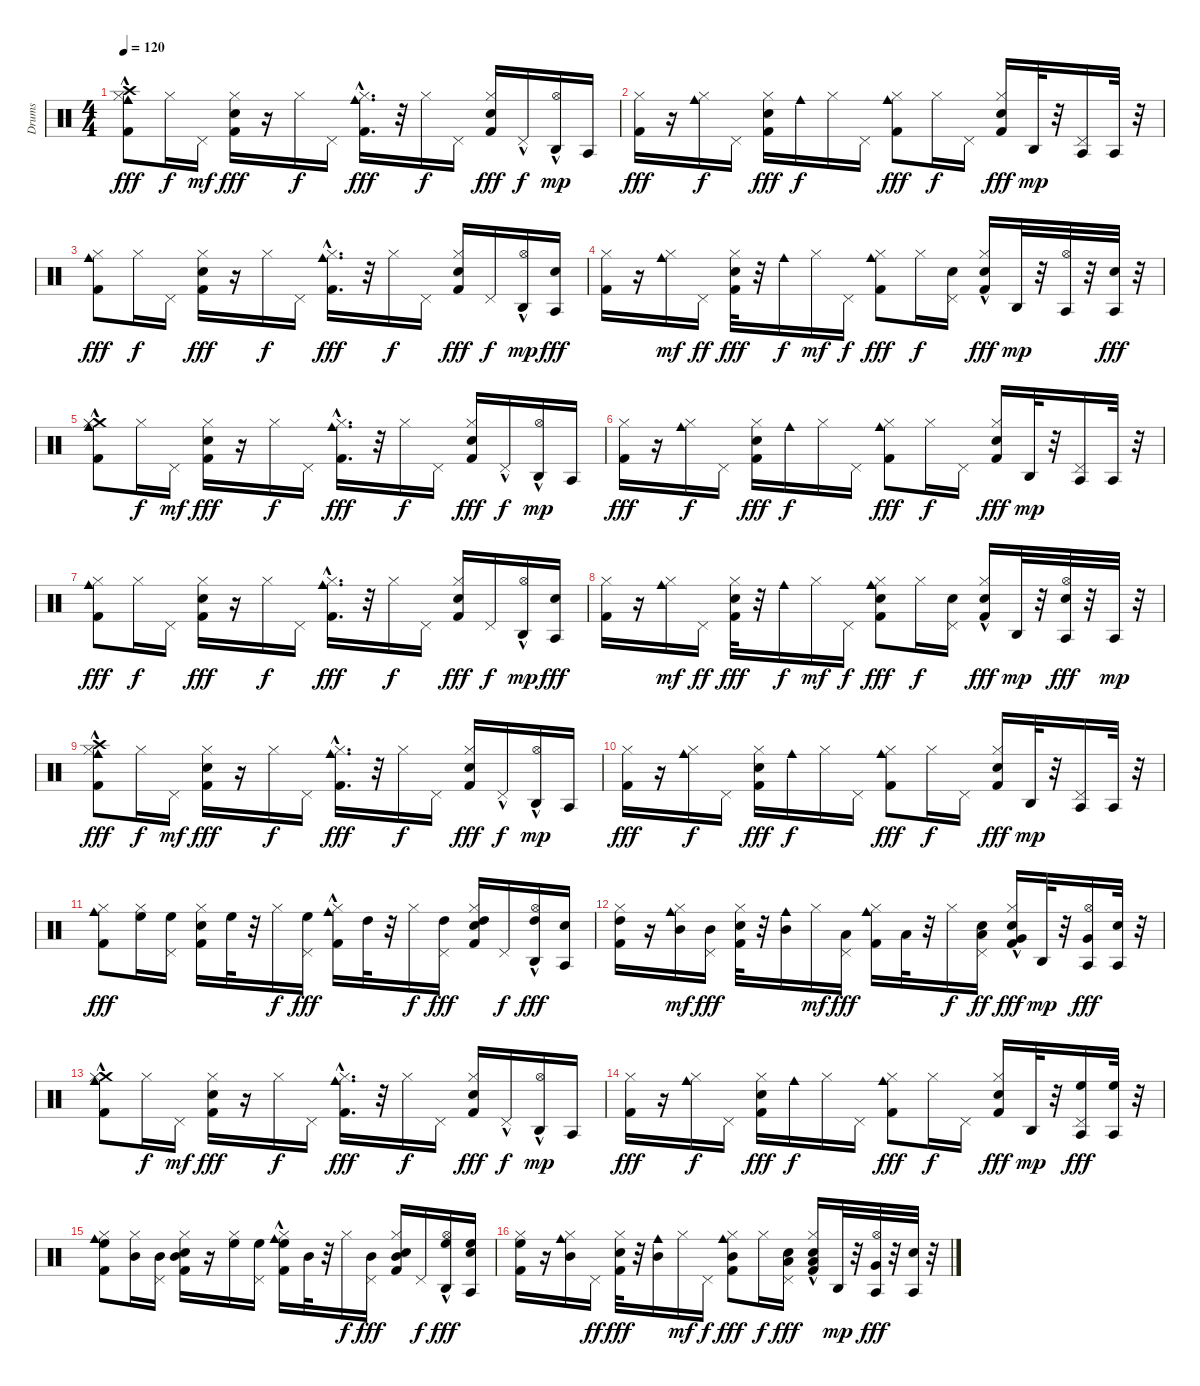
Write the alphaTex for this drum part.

\track ("Drums" "Drums") {instrument percussion}
\staff {score}
\articulation defaults
\ts (4 4)
\tempo 120
\clef neutral
\ks c
("Cowbell medium (hit)" "Crash high (hit)"{hac} "Hi-Hat (closed)" "Kick (hit) 2").8{dy fff} "Hi-Hat (closed)".16{dy f} "Pedal Hi-Hat (hit)".16{dy mf} ("Electric Snare (hit)" "Kick (hit) 2" "Hi-Hat (closed)").16{dy fff} r.16 "Hi-Hat (closed)".16{dy f} "Pedal Hi-Hat (hit)".16 ("Cowbell medium (hit)"{hac} "Kick (hit) 2" "Hi-Hat (closed)").16{d dy fff} r.32 "Hi-Hat (closed)".16{dy f} "Pedal Hi-Hat (hit)".16 ("Kick (hit) 2" "Electric Snare (hit)" "Hi-Hat (closed)").16{dy fff} "Pedal Hi-Hat (hit)"{hac}.16{dy f} ("Agogo high (hit)" "Hi-Hat (open)"{hac}).16{dy mp} "Agogo tow (hit)".16 |
("Kick (hit) 2" "Hi-Hat (closed)").16{dy fff} r.16 ("Cowbell medium (hit)" "Hi-Hat (closed)").16{dy f} "Pedal Hi-Hat (hit)".16 ("Hi-Hat (closed)" "Kick (hit) 2" "Electric Snare (hit)").16{dy fff} "Cowbell medium (hit)".16{dy f} "Hi-Hat (closed)".16 "Pedal Hi-Hat (hit)".16 ("Cowbell medium (hit)" "Kick (hit) 2" "Hi-Hat (closed)").8{dy fff} "Hi-Hat (closed)".16{dy f} "Pedal Hi-Hat (hit)".16 ("Electric Snare (hit)" "Kick (hit) 2" "Hi-Hat (closed)").16{dy fff} "Agogo high (hit)".32{dy mp} r.32 ("Agogo tow (hit)" "Pedal Hi-Hat (hit)").16 "Agogo tow (hit)".32 r.32 |
("Cowbell medium (hit)" "Kick (hit) 2" "Hi-Hat (closed)").8{dy fff} "Hi-Hat (closed)".16{dy f} "Pedal Hi-Hat (hit)".16 ("Electric Snare (hit)" "Kick (hit) 2" "Hi-Hat (closed)").16{dy fff} r.16 "Hi-Hat (closed)".16{dy f} "Pedal Hi-Hat (hit)".16 ("Cowbell medium (hit)"{hac} "Hi-Hat (closed)" "Kick (hit) 2").16{d dy fff} r.32 "Hi-Hat (closed)".16{dy f} "Pedal Hi-Hat (hit)".16 ("Kick (hit) 2" "Electric Snare (hit)" "Hi-Hat (closed)").16{dy fff} "Pedal Hi-Hat (hit)".16{dy f} ("Agogo high (hit)" "Hi-Hat (open)"{hac}).16{dy mp} ("Agogo tow (hit)" "Electric Snare (hit)").16{dy fff} |
("Kick (hit) 2" "Hi-Hat (closed)").16 r.16 ("Cowbell medium (hit)" "Hi-Hat (closed)").16{dy mf} "Pedal Hi-Hat (hit)".16{dy ff} ("Electric Snare (hit)" "Kick (hit) 2" "Hi-Hat (closed)").32{dy fff} r.32 "Cowbell medium (hit)".16{dy f} "Hi-Hat (closed)".16{dy mf} "Pedal Hi-Hat (hit)".16{dy f} ("Cowbell medium (hit)" "Hi-Hat (closed)" "Kick (hit) 2").8{dy fff} "Hi-Hat (closed)".16{dy f} ("Pedal Hi-Hat (hit)" "Electric Snare (hit)").16 ("Hi-Hat (closed)" "Kick (hit) 2"{hac} "Electric Snare (hit)").16{dy fff} "Agogo high (hit)".32{dy mp} r.32 ("Agogo tow (hit)" "Hi-Hat (open)").32 r.32 ("Agogo tow (hit)" "Electric Snare (hit)").32{dy fff} r.32 |
("Cowbell medium (hit)" "Crash medium (hit)"{hac} "Hi-Hat (closed)" "Kick (hit) 2").8 "Hi-Hat (closed)".16{dy f} "Pedal Hi-Hat (hit)".16{dy mf} ("Electric Snare (hit)" "Kick (hit) 2" "Hi-Hat (closed)").16{dy fff} r.16 "Hi-Hat (closed)".16{dy f} "Pedal Hi-Hat (hit)".16 ("Cowbell medium (hit)"{hac} "Kick (hit) 2" "Hi-Hat (closed)").16{d dy fff} r.32 "Hi-Hat (closed)".16{dy f} "Pedal Hi-Hat (hit)".16 ("Kick (hit) 2" "Electric Snare (hit)" "Hi-Hat (closed)").16{dy fff} "Pedal Hi-Hat (hit)"{hac}.16{dy f} ("Agogo high (hit)" "Hi-Hat (open)"{hac}).16{dy mp} "Agogo tow (hit)".16 |
("Kick (hit) 2" "Hi-Hat (closed)").16{dy fff} r.16 ("Cowbell medium (hit)" "Hi-Hat (closed)").16{dy f} "Pedal Hi-Hat (hit)".16 ("Hi-Hat (closed)" "Kick (hit) 2" "Electric Snare (hit)").16{dy fff} "Cowbell medium (hit)".16{dy f} "Hi-Hat (closed)".16 "Pedal Hi-Hat (hit)".16 ("Cowbell medium (hit)" "Kick (hit) 2" "Hi-Hat (closed)").8{dy fff} "Hi-Hat (closed)".16{dy f} "Pedal Hi-Hat (hit)".16 ("Electric Snare (hit)" "Kick (hit) 2" "Hi-Hat (closed)").16{dy fff} "Agogo high (hit)".32{dy mp} r.32 ("Agogo tow (hit)" "Pedal Hi-Hat (hit)").16 "Agogo tow (hit)".32 r.32 |
("Cowbell medium (hit)" "Kick (hit) 2" "Hi-Hat (closed)").8{dy fff} "Hi-Hat (closed)".16{dy f} "Pedal Hi-Hat (hit)".16 ("Electric Snare (hit)" "Kick (hit) 2" "Hi-Hat (closed)").16{dy fff} r.16 "Hi-Hat (closed)".16{dy f} "Pedal Hi-Hat (hit)".16 ("Cowbell medium (hit)"{hac} "Hi-Hat (closed)" "Kick (hit) 2").16{d dy fff} r.32 "Hi-Hat (closed)".16{dy f} "Pedal Hi-Hat (hit)".16 ("Kick (hit) 2" "Electric Snare (hit)" "Hi-Hat (closed)").16{dy fff} "Pedal Hi-Hat (hit)".16{dy f} ("Agogo high (hit)" "Hi-Hat (open)"{hac}).16{dy mp} ("Agogo tow (hit)" "Electric Snare (hit)").16{dy fff} |
("Kick (hit) 2" "Hi-Hat (closed)").16 r.16 ("Cowbell medium (hit)" "Hi-Hat (closed)").16{dy mf} "Pedal Hi-Hat (hit)".16{dy ff} ("Electric Snare (hit)" "Kick (hit) 2" "Hi-Hat (closed)").32{dy fff} r.32 "Cowbell medium (hit)".16{dy f} "Hi-Hat (closed)".16{dy mf} "Pedal Hi-Hat (hit)".16{dy f} ("Cowbell medium (hit)" "Electric Snare (hit)" "Hi-Hat (closed)" "Kick (hit) 2").8{dy fff} "Hi-Hat (closed)".16{dy f} ("Pedal Hi-Hat (hit)" "Electric Snare (hit)").16 ("Hi-Hat (closed)" "Kick (hit) 2"{hac} "Electric Snare (hit)").16{dy fff} "Agogo high (hit)".32{dy mp} r.32 ("Agogo tow (hit)" "Electric Snare (hit)" "Hi-Hat (open)").32{dy fff} r.32 "Agogo tow (hit)".32{dy mp} r.32 |
("Cowbell medium (hit)" "Crash high (hit)"{hac} "Hi-Hat (closed)" "Kick (hit) 2").8{dy fff} "Hi-Hat (closed)".16{dy f} "Pedal Hi-Hat (hit)".16{dy mf} ("Electric Snare (hit)" "Kick (hit) 2" "Hi-Hat (closed)").16{dy fff} r.16 "Hi-Hat (closed)".16{dy f} "Pedal Hi-Hat (hit)".16 ("Cowbell medium (hit)"{hac} "Kick (hit) 2" "Hi-Hat (closed)").16{d dy fff} r.32 "Hi-Hat (closed)".16{dy f} "Pedal Hi-Hat (hit)".16 ("Kick (hit) 2" "Electric Snare (hit)" "Hi-Hat (closed)").16{dy fff} "Pedal Hi-Hat (hit)"{hac}.16{dy f} ("Agogo high (hit)" "Hi-Hat (open)"{hac}).16{dy mp} "Agogo tow (hit)".16 |
("Kick (hit) 2" "Hi-Hat (closed)").16{dy fff} r.16 ("Cowbell medium (hit)" "Hi-Hat (closed)").16{dy f} "Pedal Hi-Hat (hit)".16 ("Hi-Hat (closed)" "Kick (hit) 2" "Electric Snare (hit)").16{dy fff} "Cowbell medium (hit)".16{dy f} "Hi-Hat (closed)".16 "Pedal Hi-Hat (hit)".16 ("Cowbell medium (hit)" "Kick (hit) 2" "Hi-Hat (closed)").8{dy fff} "Hi-Hat (closed)".16{dy f} "Pedal Hi-Hat (hit)".16 ("Electric Snare (hit)" "Kick (hit) 2" "Hi-Hat (closed)").16{dy fff} "Agogo high (hit)".32{dy mp} r.32 ("Agogo tow (hit)" "Pedal Hi-Hat (hit)").16 "Agogo tow (hit)".32 r.32 |
("Cowbell medium (hit)" "Kick (hit) 2" "Hi-Hat (closed)").8{dy fff} ("Hi-Hat (closed)" "High Floor Tom (hit)").16 ("High Floor Tom (hit)" "Pedal Hi-Hat (hit)").16 ("Electric Snare (hit)" "Kick (hit) 2" "Hi-Hat (closed)").16 "High Floor Tom (hit)".32 r.32 "Hi-Hat (closed)".16{dy f} ("High Floor Tom (hit)" "Pedal Hi-Hat (hit)").16{dy fff} ("Cowbell medium (hit)"{hac} "Hi-Hat (closed)" "Kick (hit) 2").16 "High Tom (hit)".32 r.32 "Hi-Hat (closed)".16{dy f} ("High Tom (hit)" "Pedal Hi-Hat (hit)").16{dy fff} ("High Tom (hit)" "Kick (hit) 2" "Electric Snare (hit)" "Hi-Hat (closed)").16 "Pedal Hi-Hat (hit)".16{dy f} ("Agogo high (hit)" "Hi-Hat (open)"{hac} "High Tom (hit)").16{dy fff} ("Agogo tow (hit)" "Electric Snare (hit)").16 |
("High Tom (hit)" "Kick (hit) 2" "Hi-Hat (closed)").16 r.16 ("Cowbell medium (hit)" "Mid Tom (hit)" "Hi-Hat (closed)").16{dy mf} ("Pedal Hi-Hat (hit)" "Mid Tom (hit)").16{dy fff} ("Electric Snare (hit)" "Kick (hit) 2" "Hi-Hat (closed)").32 r.32 ("Cowbell medium (hit)" "Mid Tom (hit)").16 "Hi-Hat (closed)".16{dy mf} ("Pedal Hi-Hat (hit)" "Low Tom (hit)").16{dy fff} ("Cowbell medium (hit)" "Hi-Hat (closed)" "Kick (hit) 2").16 "Low Tom (hit)".32 r.32 "Hi-Hat (closed)".16{dy f} ("Low Tom (hit)" "Pedal Hi-Hat (hit)" "Electric Snare (hit)").16{dy ff} ("Very Low Tom (hit)" "Hi-Hat (closed)" "Kick (hit) 2"{hac} "Electric Snare (hit)").16{dy fff} "Agogo high (hit)".32{dy mp} r.32 ("Agogo tow (hit)" "Very Low Tom (hit)" "Hi-Hat (open)").16{dy fff} ("Agogo tow (hit)" "Electric Snare (hit)").32 r.32 |
("Cowbell medium (hit)" "Crash medium (hit)"{hac} "Hi-Hat (closed)" "Kick (hit) 2").8 "Hi-Hat (closed)".16{dy f} "Pedal Hi-Hat (hit)".16{dy mf} ("Electric Snare (hit)" "Kick (hit) 2" "Hi-Hat (closed)").16{dy fff} r.16 "Hi-Hat (closed)".16{dy f} "Pedal Hi-Hat (hit)".16 ("Cowbell medium (hit)"{hac} "Kick (hit) 2" "Hi-Hat (closed)").16{d dy fff} r.32 "Hi-Hat (closed)".16{dy f} "Pedal Hi-Hat (hit)".16 ("Kick (hit) 2" "Electric Snare (hit)" "Hi-Hat (closed)").16{dy fff} "Pedal Hi-Hat (hit)"{hac}.16{dy f} ("Agogo high (hit)" "Hi-Hat (open)"{hac}).16{dy mp} "Agogo tow (hit)".16 |
("Kick (hit) 2" "Hi-Hat (closed)").16{dy fff} r.16 ("Cowbell medium (hit)" "Hi-Hat (closed)").16{dy f} "Pedal Hi-Hat (hit)".16 ("Hi-Hat (closed)" "Kick (hit) 2" "Electric Snare (hit)").16{dy fff} "Cowbell medium (hit)".16{dy f} "Hi-Hat (closed)".16 "Pedal Hi-Hat (hit)".16 ("Cowbell medium (hit)" "Kick (hit) 2" "Hi-Hat (closed)").8{dy fff} "Hi-Hat (closed)".16{dy f} "Pedal Hi-Hat (hit)".16 ("Electric Snare (hit)" "Kick (hit) 2" "Hi-Hat (closed)").16{dy fff} "Agogo high (hit)".32{dy mp} r.32 ("Agogo tow (hit)" "Pedal Hi-Hat (hit)" "High Floor Tom (hit)").16{dy fff} ("Agogo tow (hit)" "High Floor Tom (hit)").32 r.32 |
("Cowbell medium (hit)" "Kick (hit) 2" "Hi-Hat (closed)" "High Floor Tom (hit)").8 ("Mid Tom (hit)" "Hi-Hat (closed)").16 ("Pedal Hi-Hat (hit)" "Mid Tom (hit)").16 ("Mid Tom (hit)" "Electric Snare (hit)" "Kick (hit) 2" "Hi-Hat (closed)").16 r.16 ("High Floor Tom (hit)" "Hi-Hat (closed)").16 ("High Floor Tom (hit)" "Pedal Hi-Hat (hit)").16 ("Cowbell medium (hit)"{hac} "High Floor Tom (hit)" "Hi-Hat (closed)" "Kick (hit) 2").16 "Mid Tom (hit)".32 r.32 "Hi-Hat (closed)".16{dy f} ("Pedal Hi-Hat (hit)" "Mid Tom (hit)").16{dy fff} ("Kick (hit) 2" "Electric Snare (hit)" "Hi-Hat (closed)" "Mid Tom (hit)").16 "Pedal Hi-Hat (hit)".16{dy f} ("Agogo high (hit)" "High Floor Tom (hit)" "Hi-Hat (open)"{hac}).16{dy fff} ("Agogo tow (hit)" "High Floor Tom (hit)" "Electric Snare (hit)").16 |
("High Floor Tom (hit)" "Kick (hit) 2" "Hi-Hat (closed)").16 r.16 ("Cowbell medium (hit)" "Hi-Hat (closed)" "Mid Tom (hit)").16 "Pedal Hi-Hat (hit)".16{dy ff} ("Electric Snare (hit)" "Kick (hit) 2" "Hi-Hat (closed)").32{dy fff} r.32 ("Cowbell medium (hit)" "Mid Tom (hit)").16 "Hi-Hat (closed)".16{dy mf} "Pedal Hi-Hat (hit)".16{dy f} ("Cowbell medium (hit)" "Mid Tom (hit)" "Hi-Hat (closed)" "Kick (hit) 2").8{dy fff} "Hi-Hat (closed)".16{dy f} ("Low Tom (hit)" "Pedal Hi-Hat (hit)" "Electric Snare (hit)").16{dy fff} ("Low Tom (hit)" "Hi-Hat (closed)" "Kick (hit) 2"{hac} "Electric Snare (hit)").16 "Agogo high (hit)".32{dy mp} r.32 ("Agogo tow (hit)" "Hi-Hat (open)" "Very Low Tom (hit)").32{dy fff} r.32 ("Agogo tow (hit)" "Electric Snare (hit)").32 r.32
